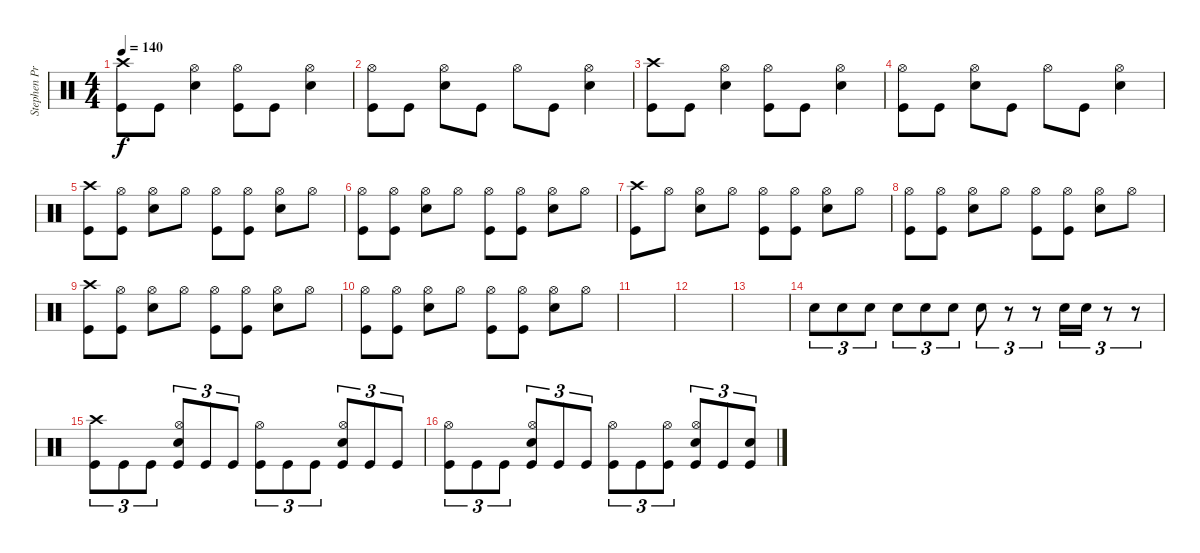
\track ("Stephen Priestly-Drums" "Stephen Pr") {instrument percussion}
\staff {score}
\articulation defaults
\ts (4 4)
\tempo 140
\clef neutral
\ks c
("Crash high (hit)" "Kick (hit)").8{dy f} "Kick (hit)".8 ("Hi-Hat (open)" "Snare (hit) 2").4 ("Hi-Hat (open)" "Kick (hit)").8 "Kick (hit)".8 ("Hi-Hat (open)" "Snare (hit) 2").4 |
("Hi-Hat (open)" "Kick (hit)").8 "Kick (hit)".8 ("Hi-Hat (open)" "Snare (hit) 2").8 "Kick (hit)".8 "Hi-Hat (open)".8 "Kick (hit)".8 ("Hi-Hat (open)" "Snare (hit) 2").4 |
("Crash high (hit)" "Kick (hit)").8 "Kick (hit)".8 ("Hi-Hat (open)" "Snare (hit) 2").4 ("Hi-Hat (open)" "Kick (hit)").8 "Kick (hit)".8 ("Hi-Hat (open)" "Snare (hit) 2").4 |
("Hi-Hat (open)" "Kick (hit)").8 "Kick (hit)".8 ("Hi-Hat (open)" "Snare (hit) 2").8 "Kick (hit)".8 "Hi-Hat (open)".8 "Kick (hit)".8 ("Hi-Hat (open)" "Snare (hit) 2").4 |
("Crash high (hit)" "Kick (hit)").8 ("Hi-Hat (open)" "Kick (hit)").8 ("Hi-Hat (open)" "Snare (hit) 2").8 "Hi-Hat (open)".8 ("Hi-Hat (open)" "Kick (hit)").8 ("Hi-Hat (open)" "Kick (hit)").8 ("Hi-Hat (open)" "Snare (hit) 2").8 "Hi-Hat (open)".8 |
("Hi-Hat (open)" "Kick (hit)").8 ("Hi-Hat (open)" "Kick (hit)").8 ("Hi-Hat (open)" "Snare (hit) 2").8 "Hi-Hat (open)".8 ("Hi-Hat (open)" "Kick (hit)").8 ("Hi-Hat (open)" "Kick (hit)").8 ("Hi-Hat (open)" "Snare (hit) 2").8 "Hi-Hat (open)".8 |
("Crash high (hit)" "Kick (hit)").8 "Hi-Hat (open)".8 ("Hi-Hat (open)" "Snare (hit) 2").8 "Hi-Hat (open)".8 ("Hi-Hat (open)" "Kick (hit)").8 ("Hi-Hat (open)" "Kick (hit)").8 ("Hi-Hat (open)" "Snare (hit) 2").8 "Hi-Hat (open)".8 |
("Hi-Hat (open)" "Kick (hit)").8 ("Hi-Hat (open)" "Kick (hit)").8 ("Hi-Hat (open)" "Snare (hit) 2").8 "Hi-Hat (open)".8 ("Hi-Hat (open)" "Kick (hit)").8 ("Hi-Hat (open)" "Kick (hit)").8 ("Hi-Hat (open)" "Snare (hit) 2").8 "Hi-Hat (open)".8 |
("Crash high (hit)" "Kick (hit)").8 ("Hi-Hat (open)" "Kick (hit)").8 ("Hi-Hat (open)" "Snare (hit) 2").8 "Hi-Hat (open)".8 ("Hi-Hat (open)" "Kick (hit)").8 ("Hi-Hat (open)" "Kick (hit)").8 ("Hi-Hat (open)" "Snare (hit) 2").8 "Hi-Hat (open)".8 |
("Hi-Hat (open)" "Kick (hit)").8 ("Hi-Hat (open)" "Kick (hit)").8 ("Hi-Hat (open)" "Snare (hit) 2").8 "Hi-Hat (open)".8 ("Hi-Hat (open)" "Kick (hit)").8 ("Hi-Hat (open)" "Kick (hit)").8 ("Hi-Hat (open)" "Snare (hit) 2").8 "Hi-Hat (open)".8 |
|
|
|
"Snare (hit) 2".8{tu (3 2)} "Snare (hit) 2".8{tu (3 2)} "Snare (hit) 2".8{tu (3 2)} "Snare (hit) 2".8{tu (3 2)} "Snare (hit) 2".8{tu (3 2)} "Snare (hit) 2".8{tu (3 2)} "Snare (hit) 2".8{tu (3 2)} r.8{tu (3 2)} r.8{tu (3 2)} "Snare (hit) 2".16{tu (3 2)} "Snare (hit) 2".16{tu (3 2)} r.8{tu (3 2)} r.8{tu (3 2)} |
("Crash high (hit)" "Kick (hit)").8{tu (3 2)} "Kick (hit)".8{tu (3 2)} "Kick (hit)".8{tu (3 2)} ("Hi-Hat (open)" "Snare (hit) 2" "Kick (hit)").8{tu (3 2)} "Kick (hit)".8{tu (3 2)} "Kick (hit)".8{tu (3 2)} ("Hi-Hat (open)" "Kick (hit)").8{tu (3 2)} "Kick (hit)".8{tu (3 2)} "Kick (hit)".8{tu (3 2)} ("Hi-Hat (open)" "Snare (hit) 2" "Kick (hit)").8{tu (3 2)} "Kick (hit)".8{tu (3 2)} "Kick (hit)".8{tu (3 2)} |
("Hi-Hat (open)" "Kick (hit)").8{tu (3 2)} "Kick (hit)".8{tu (3 2)} "Kick (hit)".8{tu (3 2)} ("Hi-Hat (open)" "Snare (hit) 2" "Kick (hit)").8{tu (3 2)} "Kick (hit)".8{tu (3 2)} "Kick (hit)".8{tu (3 2)} ("Hi-Hat (open)" "Kick (hit)").8{tu (3 2)} "Kick (hit)".8{tu (3 2)} ("Hi-Hat (open)" "Kick (hit)").8{tu (3 2)} ("Hi-Hat (open)" "Snare (hit) 2" "Kick (hit)").8{tu (3 2)} "Kick (hit)".8{tu (3 2)} ("Snare (hit) 2" "Kick (hit)").8{tu (3 2)}
